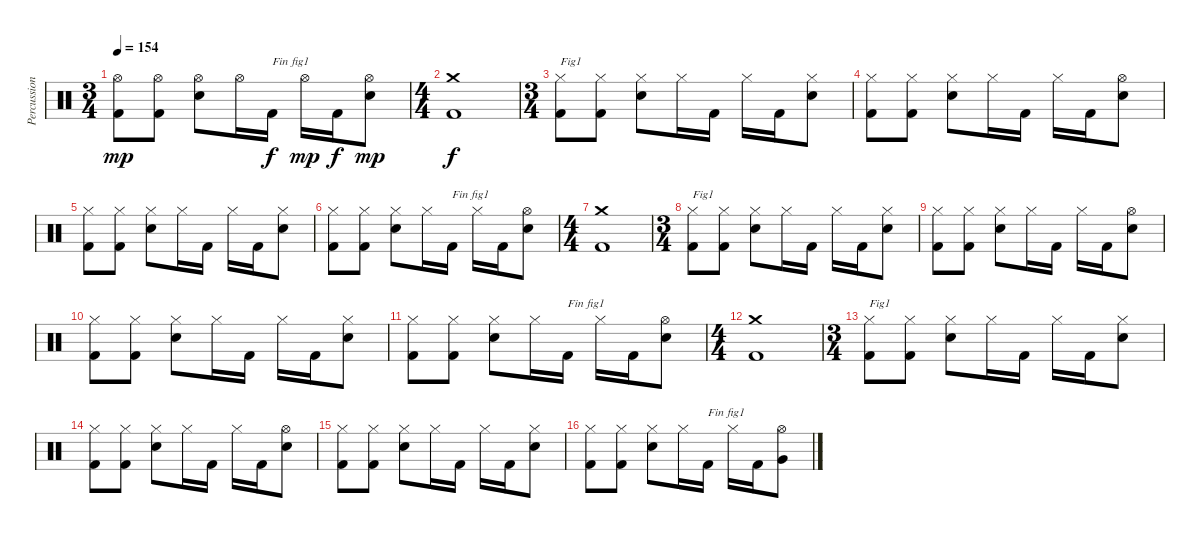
\track ("Percussions" "Percussion") {instrument percussion}
\staff {score}
\articulation defaults
\ts (3 4)
\tempo 154
\clef neutral
\ks c
("Kick (hit) 2" "Hi-Hat (open)").8{dy mp} ("Kick (hit) 2" "Hi-Hat (open)").8 ("Electric Snare (hit)" "Hi-Hat (open)").8 "Hi-Hat (open)".16 "Kick (hit) 2".16{txt "Fin fig1" dy f} "Hi-Hat (open)".16{dy mp} "Kick (hit) 2".16{dy f} ("Electric Snare (hit)" "Hi-Hat (open)").8{dy mp} |
\ts (4 4)
("Kick (hit) 2" "Crash medium (hit)").1{dy f} |
\ts (3 4)
("Kick (hit) 2" "Hi-Hat (closed)").8{txt "Fig1"} ("Kick (hit) 2" "Hi-Hat (closed)").8 ("Electric Snare (hit)" "Hi-Hat (closed)").8 "Hi-Hat (closed)".16 "Kick (hit) 2".16 "Hi-Hat (closed)".16 "Kick (hit) 2".16 ("Electric Snare (hit)" "Hi-Hat (closed)").8 |
("Kick (hit) 2" "Hi-Hat (closed)").8 ("Kick (hit) 2" "Hi-Hat (closed)").8 ("Electric Snare (hit)" "Hi-Hat (closed)").8 "Hi-Hat (closed)".16 "Kick (hit) 2".16 "Hi-Hat (closed)".16 "Kick (hit) 2".16 ("Electric Snare (hit)" "Hi-Hat (open)").8 |
("Kick (hit) 2" "Hi-Hat (closed)").8 ("Kick (hit) 2" "Hi-Hat (closed)").8 ("Electric Snare (hit)" "Hi-Hat (closed)").8 "Hi-Hat (closed)".16 "Kick (hit) 2".16 "Hi-Hat (closed)".16 "Kick (hit) 2".16 ("Electric Snare (hit)" "Hi-Hat (closed)").8 |
("Kick (hit) 2" "Hi-Hat (closed)").8 ("Kick (hit) 2" "Hi-Hat (closed)").8 ("Electric Snare (hit)" "Hi-Hat (closed)").8 "Hi-Hat (closed)".16 "Kick (hit) 2".16{txt "Fin fig1"} "Hi-Hat (closed)".16 "Kick (hit) 2".16 ("Electric Snare (hit)" "Hi-Hat (open)").8 |
\ts (4 4)
("Kick (hit) 2" "Crash medium (hit)").1 |
\ts (3 4)
("Kick (hit) 2" "Hi-Hat (closed)").8{txt "Fig1"} ("Kick (hit) 2" "Hi-Hat (closed)").8 ("Electric Snare (hit)" "Hi-Hat (closed)").8 "Hi-Hat (closed)".16 "Kick (hit) 2".16 "Hi-Hat (closed)".16 "Kick (hit) 2".16 ("Electric Snare (hit)" "Hi-Hat (closed)").8 |
("Kick (hit) 2" "Hi-Hat (closed)").8 ("Kick (hit) 2" "Hi-Hat (closed)").8 ("Electric Snare (hit)" "Hi-Hat (closed)").8 "Hi-Hat (closed)".16 "Kick (hit) 2".16 "Hi-Hat (closed)".16 "Kick (hit) 2".16 ("Electric Snare (hit)" "Hi-Hat (open)").8 |
("Kick (hit) 2" "Hi-Hat (closed)").8 ("Kick (hit) 2" "Hi-Hat (closed)").8 ("Electric Snare (hit)" "Hi-Hat (closed)").8 "Hi-Hat (closed)".16 "Kick (hit) 2".16 "Hi-Hat (closed)".16 "Kick (hit) 2".16 ("Electric Snare (hit)" "Hi-Hat (closed)").8 |
("Kick (hit) 2" "Hi-Hat (closed)").8 ("Kick (hit) 2" "Hi-Hat (closed)").8 ("Electric Snare (hit)" "Hi-Hat (closed)").8 "Hi-Hat (closed)".16 "Kick (hit) 2".16{txt "Fin fig1"} "Hi-Hat (closed)".16 "Kick (hit) 2".16 ("Electric Snare (hit)" "Hi-Hat (open)").8 |
\ts (4 4)
("Kick (hit) 2" "Crash medium (hit)").1 |
\ts (3 4)
("Kick (hit) 2" "Hi-Hat (closed)").8{txt "Fig1"} ("Kick (hit) 2" "Hi-Hat (closed)").8 ("Electric Snare (hit)" "Hi-Hat (closed)").8 "Hi-Hat (closed)".16 "Kick (hit) 2".16 "Hi-Hat (closed)".16 "Kick (hit) 2".16 ("Electric Snare (hit)" "Hi-Hat (closed)").8 |
("Kick (hit) 2" "Hi-Hat (closed)").8 ("Kick (hit) 2" "Hi-Hat (closed)").8 ("Electric Snare (hit)" "Hi-Hat (closed)").8 "Hi-Hat (closed)".16 "Kick (hit) 2".16 "Hi-Hat (closed)".16 "Kick (hit) 2".16 ("Electric Snare (hit)" "Hi-Hat (open)").8 |
("Kick (hit) 2" "Hi-Hat (closed)").8 ("Kick (hit) 2" "Hi-Hat (closed)").8 ("Electric Snare (hit)" "Hi-Hat (closed)").8 "Hi-Hat (closed)".16 "Kick (hit) 2".16 "Hi-Hat (closed)".16 "Kick (hit) 2".16 ("Electric Snare (hit)" "Hi-Hat (closed)").8 |
("Kick (hit) 2" "Hi-Hat (closed)").8 ("Kick (hit) 2" "Hi-Hat (closed)").8 ("Electric Snare (hit)" "Hi-Hat (closed)").8 "Hi-Hat (closed)".16 "Kick (hit) 2".16{txt "Fin fig1"} "Hi-Hat (closed)".16 "Kick (hit) 2".16 ("Very Low Tom (hit)" "Hi-Hat (open)").8
